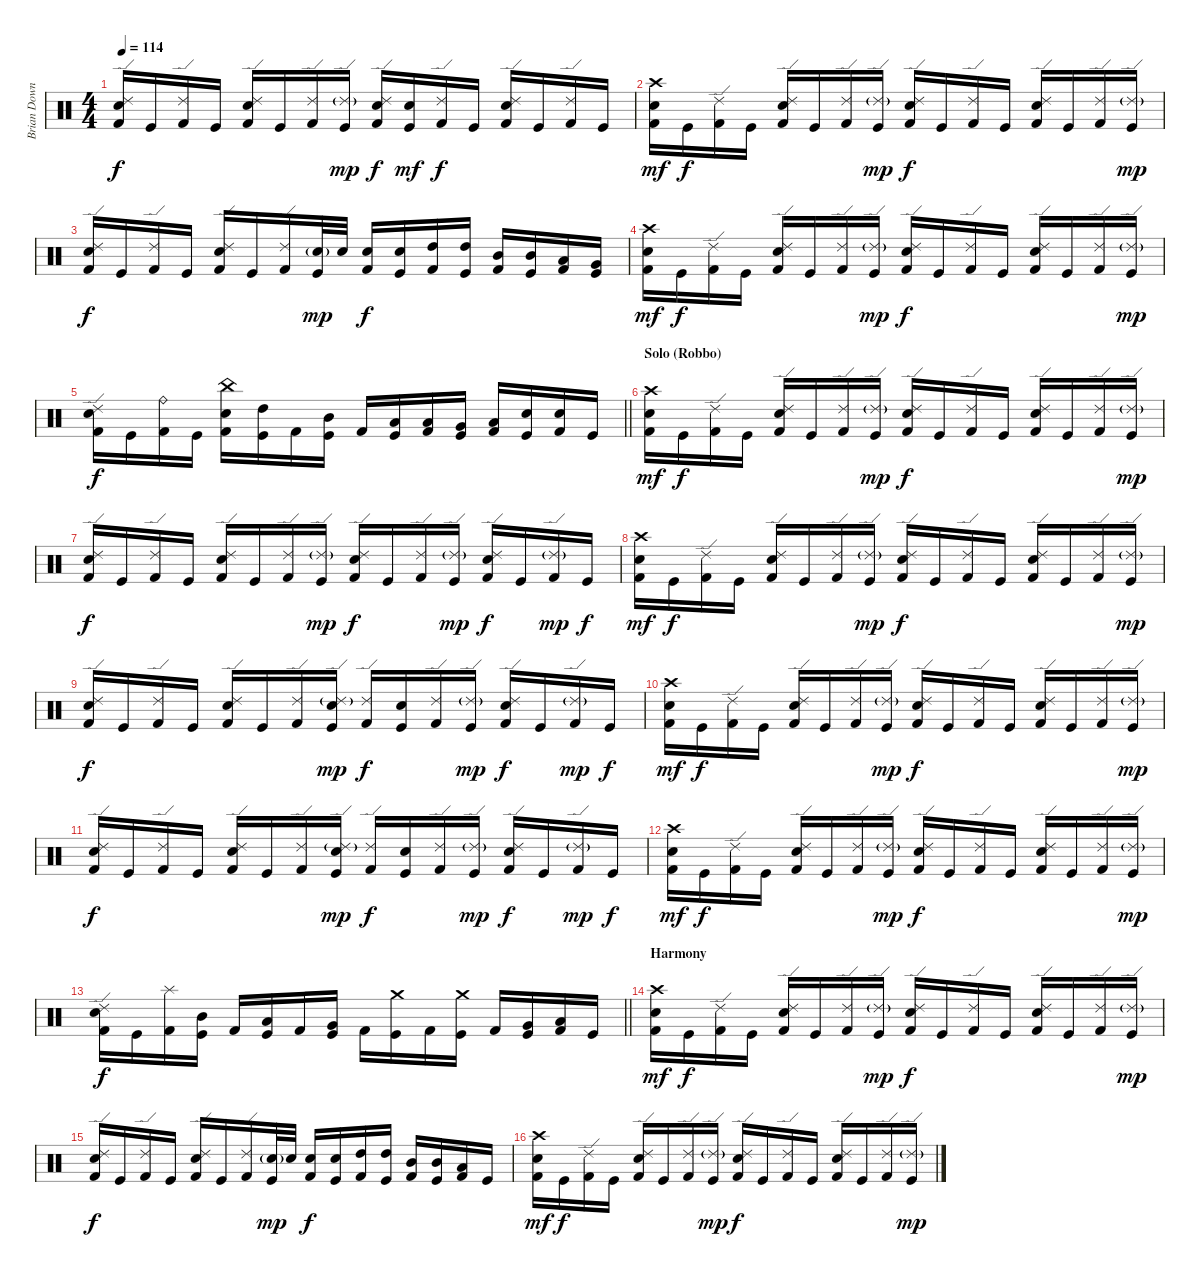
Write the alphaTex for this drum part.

\track ("Brian Downey" "Brian Down") {instrument percussion}
\staff {score}
\articulation defaults
\ts (4 4)
\tempo 114
\clef neutral
\ks c
("Ride (edge) 2" "Electric Snare (hit)" "Kick (hit) 2").16{dy f} "Kick (hit)".16 ("Ride (edge) 2" "Kick (hit) 2").16 "Kick (hit)".16 ("Ride (edge) 2" "Electric Snare (hit)" "Kick (hit) 2").16 "Kick (hit)".16 ("Ride (edge) 2" "Kick (hit) 2").16 ("Ride (edge) 2"{g} "Kick (hit)").16{dy mp} ("Ride (edge) 2" "Electric Snare (hit)" "Kick (hit) 2").16{dy f} ("Electric Snare (hit)" "Kick (hit)").16{dy mf} ("Ride (edge) 2" "Kick (hit) 2").16{dy f} "Kick (hit)".16 ("Ride (edge) 2" "Electric Snare (hit)" "Kick (hit) 2").16 "Kick (hit)".16 ("Ride (edge) 2" "Kick (hit) 2").16 "Kick (hit)".16 |
("Crash high (hit)" "Electric Snare (hit)" "Kick (hit) 2").16{dy mf} "Kick (hit)".16{dy f} ("Ride (edge) 2" "Kick (hit) 2").16 "Kick (hit)".16 ("Ride (edge) 2" "Electric Snare (hit)" "Kick (hit) 2").16 "Kick (hit)".16 ("Ride (edge) 2" "Kick (hit) 2").16 ("Ride (edge) 2"{g} "Kick (hit)").16{dy mp} ("Ride (edge) 2" "Electric Snare (hit)" "Kick (hit) 2").16{dy f} "Kick (hit)".16 ("Ride (edge) 2" "Kick (hit) 2").16 "Kick (hit)".16 ("Ride (edge) 2" "Electric Snare (hit)" "Kick (hit) 2").16 "Kick (hit)".16 ("Ride (edge) 2" "Kick (hit) 2").16 ("Ride (edge) 2"{g} "Kick (hit)").16{dy mp} |
("Ride (edge) 2" "Electric Snare (hit)" "Kick (hit) 2").16{dy f} "Kick (hit)".16 ("Ride (edge) 2" "Kick (hit) 2").16 "Kick (hit)".16 ("Ride (edge) 2" "Electric Snare (hit)" "Kick (hit) 2").16 "Kick (hit)".16 ("Ride (edge) 2" "Kick (hit) 2").16 ("Electric Snare (hit)"{g} "Kick (hit)").32{dy mp} "Electric Snare (hit)".32 ("Electric Snare (hit)" "Kick (hit) 2").16{dy f} ("Electric Snare (hit)" "Kick (hit)").16 ("High Tom (hit)" "Kick (hit) 2").16 ("High Tom (hit)" "Kick (hit)").16 ("Mid Tom (hit)" "Kick (hit) 2").16 ("Mid Tom (hit)" "Kick (hit)").16 ("Low Tom (hit)" "Kick (hit) 2").16 ("Very Low Tom (hit)" "Kick (hit)").16 |
("Crash high (hit)" "Electric Snare (hit)" "Kick (hit) 2").16{dy mf} "Kick (hit)".16{dy f} ("Ride (edge) 2" "Kick (hit) 2").16 "Kick (hit)".16 ("Ride (edge) 2" "Electric Snare (hit)" "Kick (hit) 2").16 "Kick (hit)".16 ("Ride (edge) 2" "Kick (hit) 2").16 ("Ride (edge) 2"{g} "Kick (hit)").16{dy mp} ("Ride (edge) 2" "Electric Snare (hit)" "Kick (hit) 2").16{dy f} "Kick (hit)".16 ("Ride (edge) 2" "Kick (hit) 2").16 "Kick (hit)".16 ("Ride (edge) 2" "Electric Snare (hit)" "Kick (hit) 2").16 "Kick (hit)".16 ("Ride (edge) 2" "Kick (hit) 2").16 ("Ride (edge) 2"{g} "Kick (hit)").16{dy mp} |
\barLineRight lightlight
("Ride (edge) 2" "Electric Snare (hit)" "Kick (hit) 2").16{dy f} "Kick (hit)".16 ("Ride (bell)" "Kick (hit) 2").16 "Kick (hit)".16 ("China (hit)" "Electric Snare (hit)" "Kick (hit) 2").16 ("High Tom (hit)" "Kick (hit)").16 "Kick (hit) 2".16 ("Mid Tom (hit)" "Kick (hit)").16 "Kick (hit) 2".16 ("Low Tom (hit)" "Kick (hit)").16 ("Low Tom (hit)" "Kick (hit) 2").16 ("Very Low Tom (hit)" "Kick (hit)").16 ("Low Floor Tom (hit)" "Kick (hit) 2").16 ("Electric Snare (hit)" "Kick (hit)").16 ("Electric Snare (hit)" "Kick (hit) 2").16 "Kick (hit)".16 |
\section ("" "Solo (Robbo)")
("Crash high (hit)" "Electric Snare (hit)" "Kick (hit) 2").16{dy mf} "Kick (hit)".16{dy f} ("Ride (edge) 2" "Kick (hit) 2").16 "Kick (hit)".16 ("Ride (edge) 2" "Electric Snare (hit)" "Kick (hit) 2").16 "Kick (hit)".16 ("Ride (edge) 2" "Kick (hit) 2").16 ("Ride (edge) 2"{g} "Kick (hit)").16{dy mp} ("Ride (edge) 2" "Electric Snare (hit)" "Kick (hit) 2").16{dy f} "Kick (hit)".16 ("Ride (edge) 2" "Kick (hit) 2").16 "Kick (hit)".16 ("Ride (edge) 2" "Electric Snare (hit)" "Kick (hit) 2").16 "Kick (hit)".16 ("Ride (edge) 2" "Kick (hit) 2").16 ("Ride (edge) 2"{g} "Kick (hit)").16{dy mp} |
("Ride (edge) 2" "Electric Snare (hit)" "Kick (hit) 2").16{dy f} "Kick (hit)".16 ("Ride (edge) 2" "Kick (hit) 2").16 "Kick (hit)".16 ("Ride (edge) 2" "Electric Snare (hit)" "Kick (hit) 2").16 "Kick (hit)".16 ("Ride (edge) 2" "Kick (hit) 2").16 ("Ride (edge) 2"{g} "Kick (hit)").16{dy mp} ("Ride (edge) 2" "Electric Snare (hit)" "Kick (hit) 2").16{dy f} "Kick (hit)".16 ("Ride (edge) 2" "Kick (hit) 2").16 ("Ride (edge) 2"{g} "Kick (hit)").16{dy mp} ("Ride (edge) 2" "Electric Snare (hit)" "Kick (hit) 2").16{dy f} "Kick (hit)".16 ("Ride (edge) 2"{g} "Kick (hit) 2").16{dy mp} "Kick (hit)".16{dy f} |
("Crash high (hit)" "Electric Snare (hit)" "Kick (hit) 2").16{dy mf} "Kick (hit)".16{dy f} ("Ride (edge) 2" "Kick (hit) 2").16 "Kick (hit)".16 ("Ride (edge) 2" "Electric Snare (hit)" "Kick (hit) 2").16 "Kick (hit)".16 ("Ride (edge) 2" "Kick (hit) 2").16 ("Ride (edge) 2"{g} "Kick (hit)").16{dy mp} ("Ride (edge) 2" "Electric Snare (hit)" "Kick (hit) 2").16{dy f} "Kick (hit)".16 ("Ride (edge) 2" "Kick (hit) 2").16 "Kick (hit)".16 ("Ride (edge) 2" "Electric Snare (hit)" "Kick (hit) 2").16 "Kick (hit)".16 ("Ride (edge) 2" "Kick (hit) 2").16 ("Ride (edge) 2"{g} "Kick (hit)").16{dy mp} |
("Ride (edge) 2" "Electric Snare (hit)" "Kick (hit) 2").16{dy f} "Kick (hit)".16 ("Ride (edge) 2" "Kick (hit) 2").16 "Kick (hit)".16 ("Ride (edge) 2" "Electric Snare (hit)" "Kick (hit) 2").16 "Kick (hit)".16 ("Ride (edge) 2" "Kick (hit) 2").16 ("Ride (edge) 2"{g} "Electric Snare (hit)" "Kick (hit)").16{dy mp} ("Ride (edge) 2" "Kick (hit) 2").16{dy f} ("Electric Snare (hit)" "Kick (hit)").16 ("Ride (edge) 2" "Kick (hit) 2").16 ("Ride (edge) 2"{g} "Kick (hit)").16{dy mp} ("Ride (edge) 2" "Electric Snare (hit)" "Kick (hit) 2").16{dy f} "Kick (hit)".16 ("Ride (edge) 2"{g} "Kick (hit) 2").16{dy mp} "Kick (hit)".16{dy f} |
("Crash high (hit)" "Electric Snare (hit)" "Kick (hit) 2").16{dy mf} "Kick (hit)".16{dy f} ("Ride (edge) 2" "Kick (hit) 2").16 "Kick (hit)".16 ("Ride (edge) 2" "Electric Snare (hit)" "Kick (hit) 2").16 "Kick (hit)".16 ("Ride (edge) 2" "Kick (hit) 2").16 ("Ride (edge) 2"{g} "Kick (hit)").16{dy mp} ("Ride (edge) 2" "Electric Snare (hit)" "Kick (hit) 2").16{dy f} "Kick (hit)".16 ("Ride (edge) 2" "Kick (hit) 2").16 "Kick (hit)".16 ("Ride (edge) 2" "Electric Snare (hit)" "Kick (hit) 2").16 "Kick (hit)".16 ("Ride (edge) 2" "Kick (hit) 2").16 ("Ride (edge) 2"{g} "Kick (hit)").16{dy mp} |
("Ride (edge) 2" "Electric Snare (hit)" "Kick (hit) 2").16{dy f} "Kick (hit)".16 ("Ride (edge) 2" "Kick (hit) 2").16 "Kick (hit)".16 ("Ride (edge) 2" "Electric Snare (hit)" "Kick (hit) 2").16 "Kick (hit)".16 ("Ride (edge) 2" "Kick (hit) 2").16 ("Ride (edge) 2"{g} "Electric Snare (hit)" "Kick (hit)").16{dy mp} ("Ride (edge) 2" "Kick (hit) 2").16{dy f} ("Electric Snare (hit)" "Kick (hit)").16 ("Ride (edge) 2" "Kick (hit) 2").16 ("Ride (edge) 2"{g} "Kick (hit)").16{dy mp} ("Ride (edge) 2" "Electric Snare (hit)" "Kick (hit) 2").16{dy f} "Kick (hit)".16 ("Ride (edge) 2"{g} "Kick (hit) 2").16{dy mp} "Kick (hit)".16{dy f} |
("Crash high (hit)" "Electric Snare (hit)" "Kick (hit) 2").16{dy mf} "Kick (hit)".16{dy f} ("Ride (edge) 2" "Kick (hit) 2").16 "Kick (hit)".16 ("Ride (edge) 2" "Electric Snare (hit)" "Kick (hit) 2").16 "Kick (hit)".16 ("Ride (edge) 2" "Kick (hit) 2").16 ("Ride (edge) 2"{g} "Kick (hit)").16{dy mp} ("Ride (edge) 2" "Electric Snare (hit)" "Kick (hit) 2").16{dy f} "Kick (hit)".16 ("Ride (edge) 2" "Kick (hit) 2").16 "Kick (hit)".16 ("Ride (edge) 2" "Electric Snare (hit)" "Kick (hit) 2").16 "Kick (hit)".16 ("Ride (edge) 2" "Kick (hit) 2").16 ("Ride (edge) 2"{g} "Kick (hit)").16{dy mp} |
\barLineRight lightlight
("Ride (edge) 2" "Electric Snare (hit)" "Kick (hit) 2").16{dy f} "Kick (hit)".16 ("Splash (hit)" "Kick (hit) 2").16 ("Mid Tom (hit)" "Kick (hit)").16 "Kick (hit) 2".16 ("Low Tom (hit)" "Kick (hit)").16 "Kick (hit) 2".16 ("Very Low Tom (hit)" "Kick (hit)").16 "Kick (hit) 2".16 ("Crash medium (hit)" "Kick (hit)").16 "Kick (hit) 2".16 ("Crash medium (hit)" "Kick (hit)").16 "Kick (hit) 2".16 ("Very Low Tom (hit)" "Kick (hit)").16 ("Low Floor Tom (hit)" "Kick (hit) 2").16 "Kick (hit)".16 |
\section ("" "Harmony")
("Crash high (hit)" "Electric Snare (hit)" "Kick (hit) 2").16{dy mf} "Kick (hit)".16{dy f} ("Ride (edge) 2" "Kick (hit) 2").16 "Kick (hit)".16 ("Ride (edge) 2" "Electric Snare (hit)" "Kick (hit) 2").16 "Kick (hit)".16 ("Ride (edge) 2" "Kick (hit) 2").16 ("Ride (edge) 2"{g} "Kick (hit)").16{dy mp} ("Ride (edge) 2" "Electric Snare (hit)" "Kick (hit) 2").16{dy f} "Kick (hit)".16 ("Ride (edge) 2" "Kick (hit) 2").16 "Kick (hit)".16 ("Ride (edge) 2" "Electric Snare (hit)" "Kick (hit) 2").16 "Kick (hit)".16 ("Ride (edge) 2" "Kick (hit) 2").16 ("Ride (edge) 2"{g} "Kick (hit)").16{dy mp} |
("Ride (edge) 2" "Electric Snare (hit)" "Kick (hit) 2").16{dy f} "Kick (hit)".16 ("Ride (edge) 2" "Kick (hit) 2").16 "Kick (hit)".16 ("Ride (edge) 2" "Electric Snare (hit)" "Kick (hit) 2").16 "Kick (hit)".16 ("Ride (edge) 2" "Kick (hit) 2").16 ("Electric Snare (hit)"{g} "Kick (hit)").32{dy mp} "Electric Snare (hit)".32 ("Electric Snare (hit)" "Kick (hit) 2").16{dy f} ("Electric Snare (hit)" "Kick (hit)").16 ("High Tom (hit)" "Kick (hit) 2").16 ("High Tom (hit)" "Kick (hit)").16 ("Mid Tom (hit)" "Kick (hit) 2").16 ("Mid Tom (hit)" "Kick (hit)").16 ("Low Tom (hit)" "Kick (hit) 2").16 "Kick (hit)".16 |
("Crash high (hit)" "Electric Snare (hit)" "Kick (hit) 2").16{dy mf} "Kick (hit)".16{dy f} ("Ride (edge) 2" "Kick (hit) 2").16 "Kick (hit)".16 ("Ride (edge) 2" "Electric Snare (hit)" "Kick (hit) 2").16 "Kick (hit)".16 ("Ride (edge) 2" "Kick (hit) 2").16 ("Ride (edge) 2"{g} "Kick (hit)").16{dy mp} ("Ride (edge) 2" "Electric Snare (hit)" "Kick (hit) 2").16{dy f} "Kick (hit)".16 ("Ride (edge) 2" "Kick (hit) 2").16 "Kick (hit)".16 ("Ride (edge) 2" "Electric Snare (hit)" "Kick (hit) 2").16 "Kick (hit)".16 ("Ride (edge) 2" "Kick (hit) 2").16 ("Ride (edge) 2"{g} "Kick (hit)").16{dy mp}
